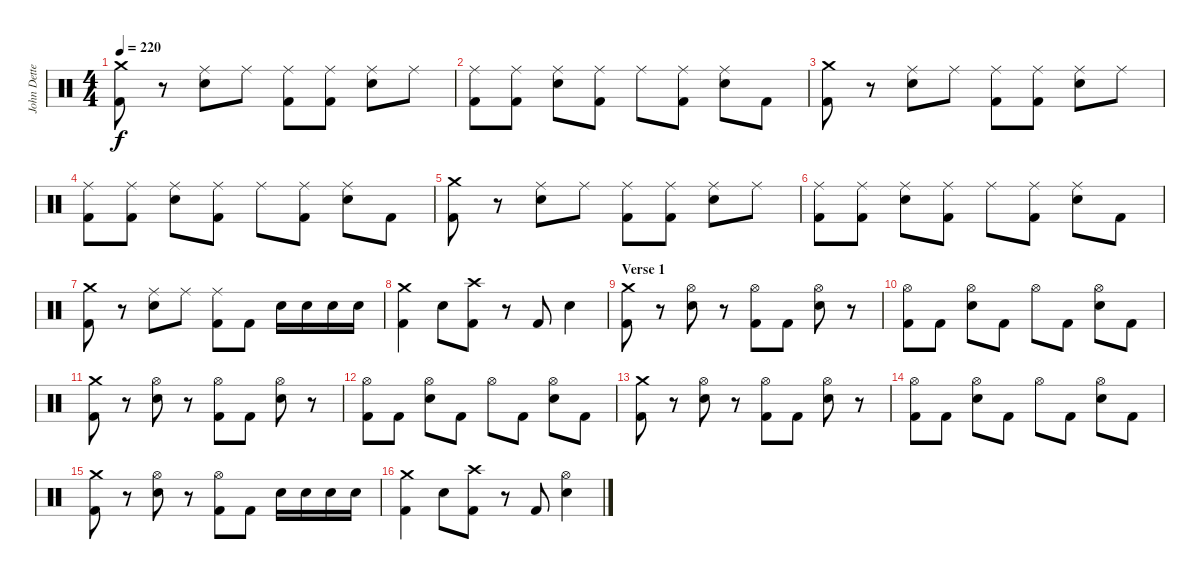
\track ("John Dette" "John Dette") {instrument percussion}
\staff {score}
\articulation defaults
\ts (4 4)
\tempo 220
\clef neutral
\ks c
("Crash medium (hit)" "Kick (hit) 2").8{dy f} r.8 ("Ride (middle)" "Snare (hit) 2").8 "Ride (middle)".8 ("Ride (middle)" "Kick (hit) 2").8 ("Ride (middle)" "Kick (hit) 2").8 ("Ride (middle)" "Snare (hit) 2").8 "Ride (middle)".8 |
("Ride (middle)" "Kick (hit) 2").8 ("Ride (middle)" "Kick (hit) 2").8 ("Ride (middle)" "Snare (hit) 2").8 ("Ride (middle)" "Kick (hit) 2").8 "Ride (middle)".8 ("Ride (middle)" "Kick (hit) 2").8 ("Ride (middle)" "Snare (hit) 2").8 "Kick (hit) 2".8 |
("Crash medium (hit)" "Kick (hit) 2").8 r.8 ("Ride (middle)" "Snare (hit) 2").8 "Ride (middle)".8 ("Ride (middle)" "Kick (hit) 2").8 ("Ride (middle)" "Kick (hit) 2").8 ("Ride (middle)" "Snare (hit) 2").8 "Ride (middle)".8 |
("Ride (middle)" "Kick (hit) 2").8 ("Ride (middle)" "Kick (hit) 2").8 ("Ride (middle)" "Snare (hit) 2").8 ("Ride (middle)" "Kick (hit) 2").8 "Ride (middle)".8 ("Ride (middle)" "Kick (hit) 2").8 ("Ride (middle)" "Snare (hit) 2").8 "Kick (hit) 2".8 |
("Crash medium (hit)" "Kick (hit) 2").8 r.8 ("Ride (middle)" "Snare (hit) 2").8 "Ride (middle)".8 ("Ride (middle)" "Kick (hit) 2").8 ("Ride (middle)" "Kick (hit) 2").8 ("Ride (middle)" "Snare (hit) 2").8 "Ride (middle)".8 |
("Ride (middle)" "Kick (hit) 2").8 ("Ride (middle)" "Kick (hit) 2").8 ("Ride (middle)" "Snare (hit) 2").8 ("Ride (middle)" "Kick (hit) 2").8 "Ride (middle)".8 ("Ride (middle)" "Kick (hit) 2").8 ("Ride (middle)" "Snare (hit) 2").8 "Kick (hit) 2".8 |
("Crash medium (hit)" "Kick (hit) 2").8 r.8 ("Ride (middle)" "Snare (hit) 2").8 "Ride (middle)".8 ("Ride (middle)" "Kick (hit) 2").8 "Kick (hit) 2".8 "Snare (hit) 2".16 "Snare (hit) 2".16 "Snare (hit) 2".16 "Snare (hit) 2".16 |
("Crash medium (hit)" "Kick (hit) 2").4 "Snare (hit) 2".8 ("Crash high (hit)" "Kick (hit) 2").8 r.8 "Kick (hit) 2".8 "Snare (hit) 2".4 |
\section ("" "Verse 1")
("Crash medium (hit)" "Kick (hit) 2").8 r.8 ("Hi-Hat (open)" "Snare (hit) 2").8 r.8 ("Hi-Hat (open)" "Kick (hit) 2").8 "Kick (hit) 2".8 ("Hi-Hat (open)" "Snare (hit) 2").8 r.8 |
("Hi-Hat (open)" "Kick (hit) 2").8 "Kick (hit) 2".8 ("Hi-Hat (open)" "Snare (hit) 2").8 "Kick (hit) 2".8 "Hi-Hat (open)".8 "Kick (hit) 2".8 ("Hi-Hat (open)" "Snare (hit) 2").8 "Kick (hit) 2".8 |
("Crash medium (hit)" "Kick (hit) 2").8 r.8 ("Hi-Hat (open)" "Snare (hit) 2").8 r.8 ("Hi-Hat (open)" "Kick (hit) 2").8 "Kick (hit) 2".8 ("Hi-Hat (open)" "Snare (hit) 2").8 r.8 |
("Hi-Hat (open)" "Kick (hit) 2").8 "Kick (hit) 2".8 ("Hi-Hat (open)" "Snare (hit) 2").8 "Kick (hit) 2".8 "Hi-Hat (open)".8 "Kick (hit) 2".8 ("Hi-Hat (open)" "Snare (hit) 2").8 "Kick (hit) 2".8 |
("Crash medium (hit)" "Kick (hit) 2").8 r.8 ("Hi-Hat (open)" "Snare (hit) 2").8 r.8 ("Hi-Hat (open)" "Kick (hit) 2").8 "Kick (hit) 2".8 ("Hi-Hat (open)" "Snare (hit) 2").8 r.8 |
("Hi-Hat (open)" "Kick (hit) 2").8 "Kick (hit) 2".8 ("Hi-Hat (open)" "Snare (hit) 2").8 "Kick (hit) 2".8 "Hi-Hat (open)".8 "Kick (hit) 2".8 ("Hi-Hat (open)" "Snare (hit) 2").8 "Kick (hit) 2".8 |
("Crash medium (hit)" "Kick (hit) 2").8 r.8 ("Hi-Hat (open)" "Snare (hit) 2").8 r.8 ("Hi-Hat (open)" "Kick (hit) 2").8 "Kick (hit) 2".8 "Snare (hit) 2".16 "Snare (hit) 2".16 "Snare (hit) 2".16 "Snare (hit) 2".16 |
("Crash medium (hit)" "Kick (hit) 2").4 "Snare (hit) 2".8 ("Crash high (hit)" "Kick (hit) 2").8 r.8 "Kick (hit) 2".8 ("Hi-Hat (open)" "Snare (hit) 2").4
